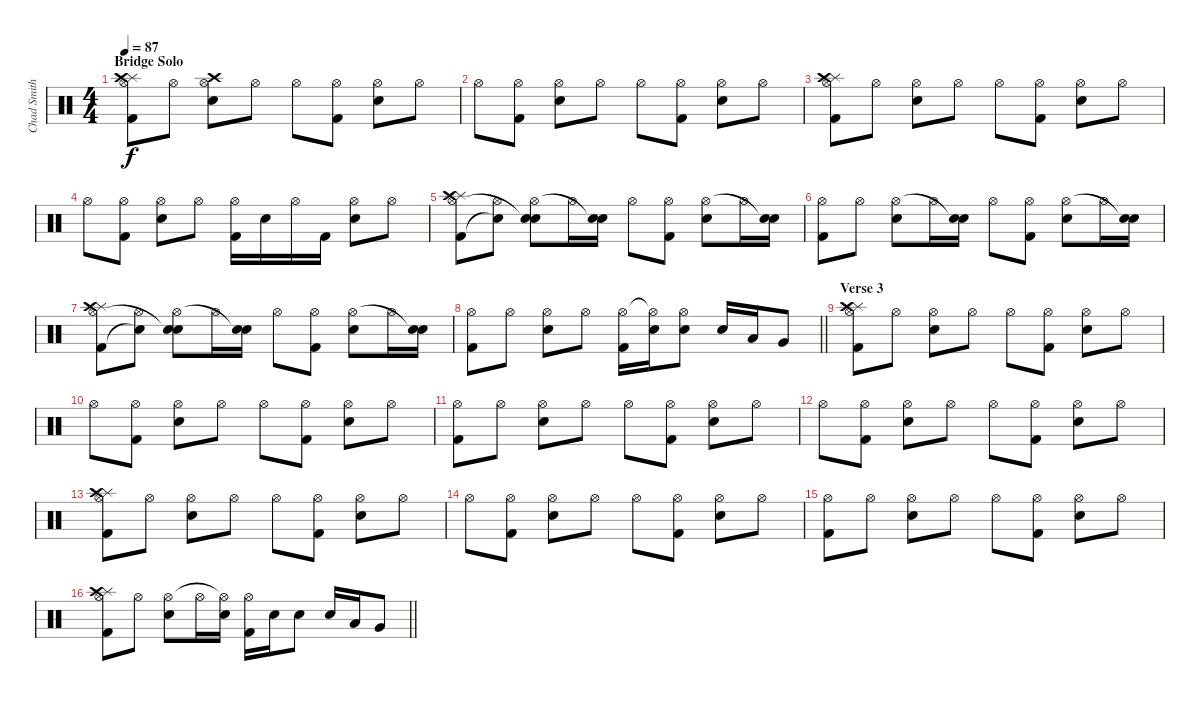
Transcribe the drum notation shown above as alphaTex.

\track ("Chad Smith" "Chad Smith") {instrument percussion}
\staff {score}
\articulation defaults
\ts (4 4)
\section ("" "Bridge Solo")
\tempo 87
\clef neutral
\ks c
("Splash (hit)" "Kick (hit) 2" "Hi-Hat (open)" "Crash high (hit)").8{dy f} "Hi-Hat (open)".8 ("Electric Snare (hit)" "Crash high (hit)" "Hi-Hat (open)").8 "Hi-Hat (open)".8 "Hi-Hat (open)".8 ("Kick (hit) 2" "Hi-Hat (open)").8 ("Electric Snare (hit)" "Hi-Hat (open)").8 "Hi-Hat (open)".8 |
"Hi-Hat (open)".8 ("Kick (hit) 2" "Hi-Hat (open)").8 ("Electric Snare (hit)" "Hi-Hat (open)").8 "Hi-Hat (open)".8 "Hi-Hat (open)".8 ("Kick (hit) 2" "Hi-Hat (open)").8 ("Electric Snare (hit)" "Hi-Hat (open)").8 "Hi-Hat (open)".8 |
("Splash (hit)" "Kick (hit) 2" "Hi-Hat (open)" "Crash high (hit)").8 "Hi-Hat (open)".8 ("Electric Snare (hit)" "Hi-Hat (open)").8 "Hi-Hat (open)".8 "Hi-Hat (open)".8 ("Kick (hit) 2" "Hi-Hat (open)").8 ("Electric Snare (hit)" "Hi-Hat (open)").8 "Hi-Hat (open)".8 |
"Hi-Hat (open)".8 ("Kick (hit) 2" "Hi-Hat (open)").8 ("Electric Snare (hit)" "Hi-Hat (open)").8 "Hi-Hat (open)".8 ("Kick (hit) 2" "Hi-Hat (open)").16 "Electric Snare (hit)".16 "Hi-Hat (open)".16 "Kick (hit) 2".16 ("Electric Snare (hit)" "Hi-Hat (open)").8 "Hi-Hat (open)".8 |
("Splash (hit)" "Kick (hit) 2" "Hi-Hat (open)" "Crash high (hit)").8 ("Hi-Hat (open)" "Snare (hit)"{t}).8 ("Electric Snare (hit)" "Hi-Hat (open)" "Snare (hit)"{t}).8 "Hi-Hat (open)".16 ("Electric Snare (hit)" "Snare (hit)"{t}).16 "Hi-Hat (open)".8 ("Kick (hit) 2" "Hi-Hat (open)").8 ("Electric Snare (hit)" "Hi-Hat (open)").8 "Hi-Hat (open)".16 ("Electric Snare (hit)" "Snare (hit)"{t}).16 |
("Kick (hit) 2" "Hi-Hat (open)").8 "Hi-Hat (open)".8 ("Electric Snare (hit)" "Hi-Hat (open)").8 "Hi-Hat (open)".16 ("Electric Snare (hit)" "Snare (hit)"{t}).16 "Hi-Hat (open)".8 ("Kick (hit) 2" "Hi-Hat (open)").8 ("Electric Snare (hit)" "Hi-Hat (open)").8 "Hi-Hat (open)".16 ("Electric Snare (hit)" "Snare (hit)"{t}).16 |
("Splash (hit)" "Kick (hit) 2" "Hi-Hat (open)" "Crash high (hit)").8 ("Hi-Hat (open)" "Snare (hit)"{t}).8 ("Electric Snare (hit)" "Hi-Hat (open)" "Snare (hit)"{t}).8 "Hi-Hat (open)".16 ("Electric Snare (hit)" "Snare (hit)"{t}).16 "Hi-Hat (open)".8 ("Kick (hit) 2" "Hi-Hat (open)").8 ("Electric Snare (hit)" "Hi-Hat (open)").8 "Hi-Hat (open)".16 ("Electric Snare (hit)" "Snare (hit)"{t}).16 |
\barLineRight lightlight
("Kick (hit) 2" "Hi-Hat (open)").8 "Hi-Hat (open)".8 ("Electric Snare (hit)" "Hi-Hat (open)").8 "Hi-Hat (open)".8 ("Kick (hit) 2" "Hi-Hat (open)").16 ("Electric Snare (hit)" "Hi-Hat (open)"{t}).16 ("Electric Snare (hit)" "Hi-Hat (open)").8 "Electric Snare (hit)".16 "Low Tom (hit)".16 "Very Low Tom (hit)".8 |
\section ("" "Verse 3")
("Splash (hit)" "Kick (hit) 2" "Hi-Hat (open)" "Crash high (hit)").8 "Hi-Hat (open)".8 ("Electric Snare (hit)" "Hi-Hat (open)").8 "Hi-Hat (open)".8 "Hi-Hat (open)".8 ("Kick (hit) 2" "Hi-Hat (open)").8 ("Electric Snare (hit)" "Hi-Hat (open)").8 "Hi-Hat (open)".8 |
"Hi-Hat (open)".8 ("Kick (hit) 2" "Hi-Hat (open)").8 ("Electric Snare (hit)" "Hi-Hat (open)").8 "Hi-Hat (open)".8 "Hi-Hat (open)".8 ("Kick (hit) 2" "Hi-Hat (open)").8 ("Electric Snare (hit)" "Hi-Hat (open)").8 "Hi-Hat (open)".8 |
("Kick (hit) 2" "Hi-Hat (open)").8 "Hi-Hat (open)".8 ("Electric Snare (hit)" "Hi-Hat (open)").8 "Hi-Hat (open)".8 "Hi-Hat (open)".8 ("Kick (hit) 2" "Hi-Hat (open)").8 ("Electric Snare (hit)" "Hi-Hat (open)").8 "Hi-Hat (open)".8 |
"Hi-Hat (open)".8 ("Kick (hit) 2" "Hi-Hat (open)").8 ("Electric Snare (hit)" "Hi-Hat (open)").8 "Hi-Hat (open)".8 "Hi-Hat (open)".8 ("Kick (hit) 2" "Hi-Hat (open)").8 ("Electric Snare (hit)" "Hi-Hat (open)").8 "Hi-Hat (open)".8 |
("Splash (hit)" "Kick (hit) 2" "Hi-Hat (open)" "Crash high (hit)").8 "Hi-Hat (open)".8 ("Electric Snare (hit)" "Hi-Hat (open)").8 "Hi-Hat (open)".8 "Hi-Hat (open)".8 ("Kick (hit) 2" "Hi-Hat (open)").8 ("Electric Snare (hit)" "Hi-Hat (open)").8 "Hi-Hat (open)".8 |
"Hi-Hat (open)".8 ("Kick (hit) 2" "Hi-Hat (open)").8 ("Electric Snare (hit)" "Hi-Hat (open)").8 "Hi-Hat (open)".8 "Hi-Hat (open)".8 ("Kick (hit) 2" "Hi-Hat (open)").8 ("Electric Snare (hit)" "Hi-Hat (open)").8 "Hi-Hat (open)".8 |
("Kick (hit) 2" "Hi-Hat (open)").8 "Hi-Hat (open)".8 ("Electric Snare (hit)" "Hi-Hat (open)").8 "Hi-Hat (open)".8 "Hi-Hat (open)".8 ("Kick (hit) 2" "Hi-Hat (open)").8 ("Electric Snare (hit)" "Hi-Hat (open)").8 "Hi-Hat (open)".8 |
\barLineRight lightlight
("Splash (hit)" "Kick (hit) 2" "Hi-Hat (open)" "Crash high (hit)").8 "Hi-Hat (open)".8 ("Electric Snare (hit)" "Hi-Hat (open)").8 "Hi-Hat (open)".16 ("Electric Snare (hit)" "Hi-Hat (open)"{t}).16 ("Kick (hit) 2" "Hi-Hat (open)").16 "Electric Snare (hit)".16 "Electric Snare (hit)".8 "Electric Snare (hit)".16 "Low Tom (hit)".16 "Very Low Tom (hit)".8
